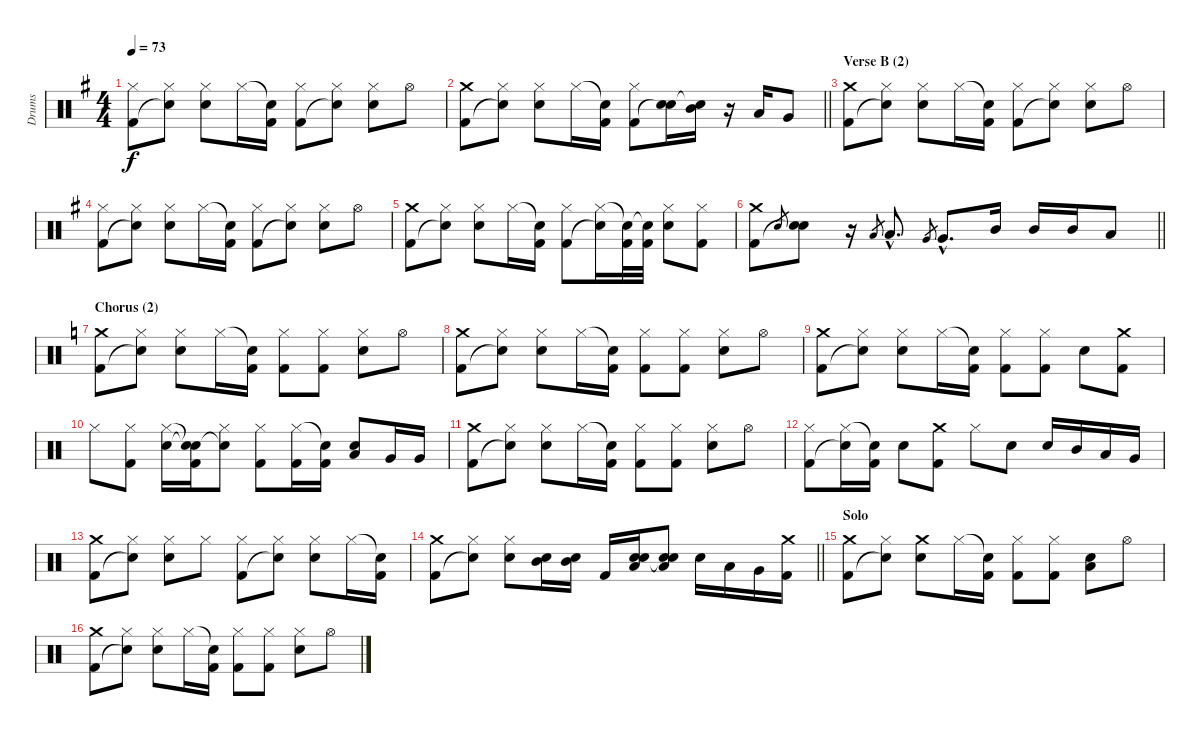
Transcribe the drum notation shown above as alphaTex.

\track ("Drums" "Drums") {instrument percussion}
\staff {score}
\articulation defaults
\ts (4 4)
\tempo 73
\clef neutral
\ks g
("Hi-Hat (closed)" "Kick (hit) 2").8{dy f} ("Hi-Hat (closed)" "Snare (hit)"{t}).8 ("Hi-Hat (closed)" "Electric Snare (hit)").8 "Hi-Hat (closed)".16 ("Snare (hit)"{t} "Kick (hit) 2").16 ("Hi-Hat (closed)" "Kick (hit) 2").8 ("Hi-Hat (closed)" "Snare (hit)"{t}).8 ("Hi-Hat (closed)" "Electric Snare (hit)").8 "Hi-Hat (open)".8 |
\barLineRight lightlight
("Crash medium (hit)" "Kick (hit) 2").8 ("Hi-Hat (closed)" "Snare (hit)"{t}).8 ("Hi-Hat (closed)" "Electric Snare (hit)").8 "Hi-Hat (closed)".16 ("Snare (hit)"{t} "Kick (hit) 2").16 ("Hi-Hat (closed)" "Kick (hit) 2").8 ("Electric Snare (hit)" "Snare (hit)"{t}).16 ("Mid Tom (hit)" "Snare (hit)"{t}).16 r.16 "Low Tom (hit)".16 "Very Low Tom (hit)".8 |
\section ("" "Verse B (2)")
("Crash medium (hit)" "Kick (hit) 2").8 ("Hi-Hat (closed)" "Snare (hit)"{t}).8 ("Hi-Hat (closed)" "Electric Snare (hit)").8 "Hi-Hat (closed)".16 ("Snare (hit)"{t} "Kick (hit) 2").16 ("Hi-Hat (closed)" "Kick (hit) 2").8 ("Hi-Hat (closed)" "Snare (hit)"{t}).8 ("Hi-Hat (closed)" "Electric Snare (hit)").8 "Hi-Hat (open)".8 |
("Hi-Hat (closed)" "Kick (hit) 2").8 ("Hi-Hat (closed)" "Snare (hit)"{t}).8 ("Hi-Hat (closed)" "Electric Snare (hit)").8 "Hi-Hat (closed)".16 ("Snare (hit)"{t} "Kick (hit) 2").16 ("Hi-Hat (closed)" "Kick (hit) 2").8 ("Hi-Hat (closed)" "Snare (hit)"{t}).8 ("Hi-Hat (closed)" "Electric Snare (hit)").8 "Hi-Hat (open)".8 |
("Crash medium (hit)" "Kick (hit) 2").8 ("Hi-Hat (closed)" "Snare (hit)"{t}).8 ("Hi-Hat (closed)" "Electric Snare (hit)").8 "Hi-Hat (closed)".16 ("Snare (hit)"{t} "Kick (hit) 2").16 ("Hi-Hat (closed)" "Kick (hit) 2").8 ("Hi-Hat (closed)" "Snare (hit)"{t}).16 ("Snare (hit)"{t} "Kick (hit) 2").32 ("Snare (hit)"{t} "Kick (hit) 2").32 ("Hi-Hat (closed)" "Electric Snare (hit)").8 ("Hi-Hat (closed)" "Kick (hit) 2").8 |
\barLineRight lightlight
("Crash medium (hit)" "Kick (hit) 2").8 "Electric Snare (hit)".8{gr} ("Electric Snare (hit)" "Snare (hit)"{t}).8 r.16 "Low Tom (hit)".8{gr} "Low Tom (hit)"{hac}.8{d} "Very Low Tom (hit)".8{gr} "Very Low Tom (hit)"{hac}.8{d} "Mid Tom (hit)".16 "Mid Tom (hit)".16 "Mid Tom (hit)".16 "Low Tom (hit)".8 |
\section ("" "Chorus (2)")
\ks c
("Crash medium (hit)" "Kick (hit) 2").8 ("Hi-Hat (closed)" "Snare (hit)"{t}).8 ("Hi-Hat (closed)" "Electric Snare (hit)").8 "Hi-Hat (closed)".16 ("Snare (hit)"{t} "Kick (hit) 2").16 ("Hi-Hat (closed)" "Kick (hit) 2").8 ("Hi-Hat (closed)" "Kick (hit) 2").8 ("Hi-Hat (closed)" "Electric Snare (hit)").8 "Hi-Hat (open)".8 |
("Crash medium (hit)" "Kick (hit) 2").8 ("Hi-Hat (closed)" "Snare (hit)"{t}).8 ("Hi-Hat (closed)" "Electric Snare (hit)").8 "Hi-Hat (closed)".16 ("Snare (hit)"{t} "Kick (hit) 2").16 ("Hi-Hat (closed)" "Kick (hit) 2").8 ("Hi-Hat (closed)" "Kick (hit) 2").8 ("Hi-Hat (closed)" "Electric Snare (hit)").8 "Hi-Hat (open)".8 |
("Crash medium (hit)" "Kick (hit) 2").8 ("Hi-Hat (closed)" "Snare (hit)"{t}).8 ("Hi-Hat (closed)" "Electric Snare (hit)").8 "Hi-Hat (closed)".16 ("Snare (hit)"{t} "Kick (hit) 2").16 ("Hi-Hat (closed)" "Kick (hit) 2").8 ("Hi-Hat (closed)" "Kick (hit) 2").8 "Electric Snare (hit)".8 ("Crash medium (hit)" "Kick (hit) 2").8 |
"Hi-Hat (closed)".8 ("Hi-Hat (closed)" "Kick (hit) 2").8 ("Hi-Hat (closed)" "Electric Snare (hit)").16 ("Snare (hit)"{t} "Snare (hit)"{t} "Kick (hit) 2").16 ("Hi-Hat (closed)" "Snare (hit)"{t}).8 ("Hi-Hat (closed)" "Kick (hit) 2").8 ("Hi-Hat (closed)" "Kick (hit) 2").16 ("Snare (hit)"{t} "Kick (hit) 2").16 ("Electric Snare (hit)" "Low Tom (hit)").8 "Very Low Tom (hit)".16 "Very Low Tom (hit)".16 |
("Crash medium (hit)" "Kick (hit) 2").8 ("Hi-Hat (closed)" "Snare (hit)"{t}).8 ("Hi-Hat (closed)" "Electric Snare (hit)").8 "Hi-Hat (closed)".16 ("Snare (hit)"{t} "Kick (hit) 2").16 ("Hi-Hat (closed)" "Kick (hit) 2").8 ("Hi-Hat (closed)" "Kick (hit) 2").8 ("Hi-Hat (closed)" "Electric Snare (hit)").8 "Hi-Hat (open)".8 |
("Hi-Hat (closed)" "Kick (hit) 2").8 ("Hi-Hat (closed)" "Snare (hit)"{t}).16 ("Snare (hit)"{t} "Kick (hit) 2").16 "Electric Snare (hit)".8 ("Crash medium (hit)" "Kick (hit) 2").8 "Hi-Hat (closed)".8 "Electric Snare (hit)".8 "Electric Snare (hit)".16 "Mid Tom (hit)".16 "Low Tom (hit)".16 "Very Low Tom (hit)".16 |
("Crash medium (hit)" "Kick (hit) 2").8 ("Hi-Hat (closed)" "Snare (hit)"{t}).8 ("Hi-Hat (closed)" "Electric Snare (hit)").8 "Hi-Hat (closed)".8 ("Hi-Hat (closed)" "Kick (hit) 2").8 ("Hi-Hat (closed)" "Snare (hit)"{t}).8 ("Hi-Hat (closed)" "Electric Snare (hit)").8 "Hi-Hat (closed)".16 ("Snare (hit)"{t} "Kick (hit) 2").16 |
\barLineRight lightlight
("Crash medium (hit)" "Kick (hit) 2").8 ("Hi-Hat (closed)" "Snare (hit)"{t}).8 ("Hi-Hat (closed)" "Electric Snare (hit)").8 ("Electric Snare (hit)" "Mid Tom (hit)").16 ("Electric Snare (hit)" "Mid Tom (hit)").16 "Kick (hit) 2".16 ("Electric Snare (hit)" "Low Tom (hit)" "Snare (hit)").16 ("Electric Snare (hit)" "Low Tom (hit)" "Snare (hit)"{t}).8 "Electric Snare (hit)".16 "Low Tom (hit)".16 "Very Low Tom (hit)".16 ("Crash medium (hit)" "Kick (hit) 2").16 |
\section ("" "Solo")
("Crash medium (hit)" "Kick (hit) 2").8 ("Hi-Hat (closed)" "Snare (hit)"{t}).8 ("Crash medium (hit)" "Electric Snare (hit)").8 "Hi-Hat (closed)".16 ("Snare (hit)"{t} "Kick (hit) 2").16 ("Hi-Hat (closed)" "Kick (hit) 2").8 ("Hi-Hat (closed)" "Kick (hit) 2").8 ("Electric Snare (hit)" "Low Floor Tom (hit)").8 "Hi-Hat (open)".8 |
("Crash medium (hit)" "Kick (hit) 2").8 ("Hi-Hat (closed)" "Snare (hit)"{t}).8 ("Hi-Hat (closed)" "Electric Snare (hit)").8 "Hi-Hat (closed)".16 ("Snare (hit)"{t} "Kick (hit) 2").16 ("Hi-Hat (closed)" "Kick (hit) 2").8 ("Hi-Hat (closed)" "Kick (hit) 2").8 ("Hi-Hat (closed)" "Electric Snare (hit)").8 "Hi-Hat (open)".8
